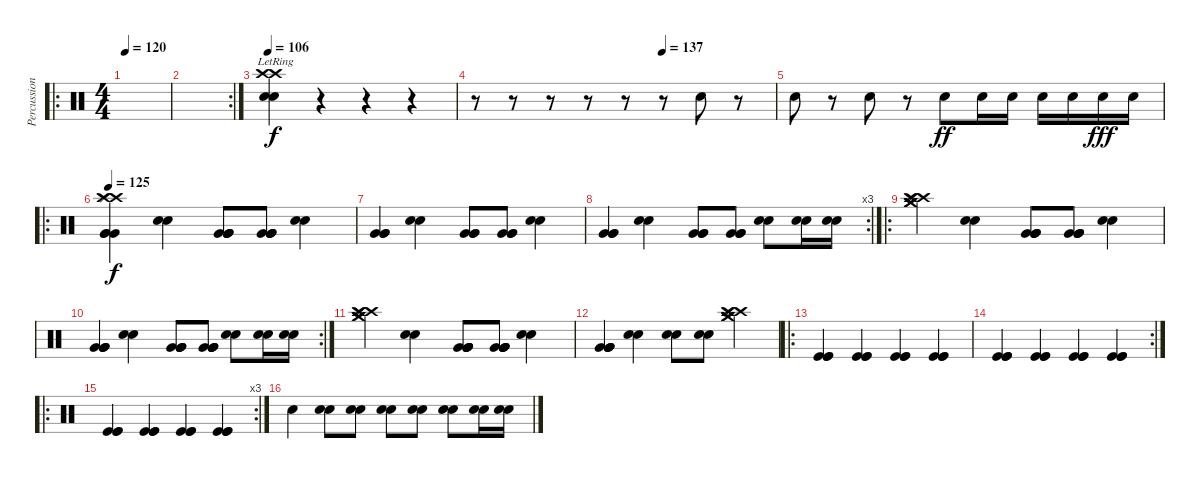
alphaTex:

\track ("Percussions" "Percussion") {instrument percussion}
\staff {score}
\articulation defaults
\ro
\ts (4 4)
\tempo 120
\tempo 150
\tempo 120
\clef neutral
\ks c
|
\rc 2
|
\tempo 106
("Electric Snare (hit)"{lr} "Electric Snare (hit)"{lr} "Crash high (hit)"{lr} "Crash high (hit)"{lr}).4 r.4 r.4 r.4 |
\tempo (137 0.625)
r.8 r.8 r.8 r.8 r.8 r.8 "Electric Snare (hit)".8 r.8 |
"Electric Snare (hit)".8 r.8 "Electric Snare (hit)".8 r.8 "Electric Snare (hit)".8{dy ff} "Electric Snare (hit)".16 "Electric Snare (hit)".16 "Electric Snare (hit)".16 "Electric Snare (hit)".16 "Electric Snare (hit)".16{dy fff} "Electric Snare (hit)".16 |
\ro
\tempo 125
("Crash high (hit)" "Crash high (hit)" "Splash (hit)" "Very Low Tom (hit)" "Very Low Tom (hit)" "Very Low Tom (hit)").4{dy f} ("Electric Snare (hit)" "Electric Snare (hit)").4 ("Very Low Tom (hit)" "Very Low Tom (hit)" "Very Low Tom (hit)" "Very Low Tom (hit)").8 ("Very Low Tom (hit)" "Very Low Tom (hit)" "Very Low Tom (hit)" "Very Low Tom (hit)").8 ("Electric Snare (hit)" "Electric Snare (hit)").4 |
("Very Low Tom (hit)" "Very Low Tom (hit)" "Very Low Tom (hit)").4 ("Electric Snare (hit)" "Electric Snare (hit)").4 ("Very Low Tom (hit)" "Very Low Tom (hit)" "Very Low Tom (hit)").8 ("Very Low Tom (hit)" "Very Low Tom (hit)" "Very Low Tom (hit)").8 ("Electric Snare (hit)" "Electric Snare (hit)").4 |
\rc 3
("Very Low Tom (hit)" "Very Low Tom (hit)" "Very Low Tom (hit)").4 ("Electric Snare (hit)" "Electric Snare (hit)").4 ("Very Low Tom (hit)" "Very Low Tom (hit)" "Very Low Tom (hit)").8 ("Very Low Tom (hit)" "Very Low Tom (hit)" "Very Low Tom (hit)").8 ("Electric Snare (hit)" "Electric Snare (hit)").8 ("Electric Snare (hit)" "Electric Snare (hit)").16 ("Electric Snare (hit)" "Electric Snare (hit)").16 |
\ro
("Crash high (hit)" "Crash high (hit)" "Splash (hit)" "Splash (hit)" "Crash medium (hit)" "Crash medium (hit)").4 ("Electric Snare (hit)" "Electric Snare (hit)").4 ("Very Low Tom (hit)" "Very Low Tom (hit)" "Very Low Tom (hit)" "Very Low Tom (hit)").8 ("Very Low Tom (hit)" "Very Low Tom (hit)" "Very Low Tom (hit)" "Very Low Tom (hit)").8 ("Electric Snare (hit)" "Electric Snare (hit)").4 |
\rc 2
("Very Low Tom (hit)" "Very Low Tom (hit)" "Very Low Tom (hit)" "Very Low Tom (hit)").4 ("Electric Snare (hit)" "Electric Snare (hit)").4 ("Very Low Tom (hit)" "Very Low Tom (hit)" "Very Low Tom (hit)" "Very Low Tom (hit)").8 ("Very Low Tom (hit)" "Very Low Tom (hit)" "Very Low Tom (hit)" "Very Low Tom (hit)").8 ("Electric Snare (hit)" "Electric Snare (hit)").8 ("Electric Snare (hit)" "Electric Snare (hit)").16 ("Electric Snare (hit)" "Electric Snare (hit)").16 |
("Crash high (hit)" "Crash high (hit)" "Splash (hit)" "Splash (hit)" "Crash medium (hit)" "Crash medium (hit)").4 ("Electric Snare (hit)" "Electric Snare (hit)").4 ("Very Low Tom (hit)" "Very Low Tom (hit)" "Very Low Tom (hit)" "Very Low Tom (hit)" "Very Low Tom (hit)").8 ("Very Low Tom (hit)" "Very Low Tom (hit)" "Very Low Tom (hit)" "Very Low Tom (hit)" "Very Low Tom (hit)").8 ("Electric Snare (hit)" "Electric Snare (hit)").4 |
("Very Low Tom (hit)" "Very Low Tom (hit)" "Very Low Tom (hit)" "Very Low Tom (hit)").4 ("Electric Snare (hit)" "Electric Snare (hit)").4 ("Electric Snare (hit)" "Electric Snare (hit)").8 ("Electric Snare (hit)" "Electric Snare (hit)").8 ("Crash high (hit)" "Splash (hit)" "Crash medium (hit)" "Splash (hit)" "Crash high (hit)" "Crash medium (hit)").4 |
\ro
("Kick (hit)" "Kick (hit)" "Kick (hit)").4 ("Kick (hit)" "Kick (hit)" "Kick (hit)").4 ("Kick (hit)" "Kick (hit)" "Kick (hit)").4 ("Kick (hit)" "Kick (hit)" "Kick (hit)").4 |
\rc 2
("Kick (hit)" "Kick (hit)" "Kick (hit)").4 ("Kick (hit)" "Kick (hit)" "Kick (hit)").4 ("Kick (hit)" "Kick (hit)" "Kick (hit)").4 ("Kick (hit)" "Kick (hit)" "Kick (hit)").4 |
\ro
\rc 3
("Kick (hit)" "Kick (hit)" "Kick (hit)").4 ("Kick (hit)" "Kick (hit)" "Kick (hit)").4 ("Kick (hit)" "Kick (hit)" "Kick (hit)").4 ("Kick (hit)" "Kick (hit)" "Kick (hit)").4 |
"Electric Snare (hit)".4 ("Electric Snare (hit)" "Electric Snare (hit)").8 ("Electric Snare (hit)" "Electric Snare (hit)").8 ("Electric Snare (hit)" "Electric Snare (hit)").8 ("Electric Snare (hit)" "Electric Snare (hit)").8 ("Electric Snare (hit)" "Electric Snare (hit)").8 ("Electric Snare (hit)" "Electric Snare (hit)").16 ("Electric Snare (hit)" "Electric Snare (hit)").16
